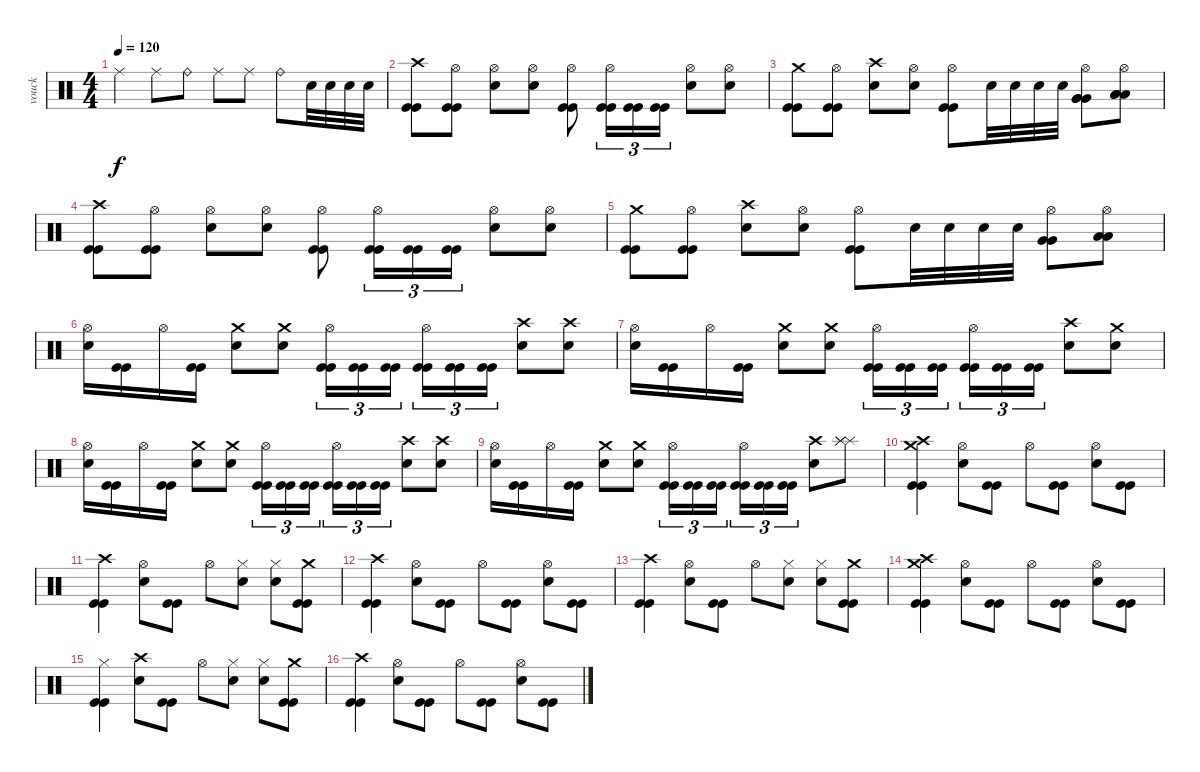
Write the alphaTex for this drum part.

\track ("vouck" "vouck") {instrument percussion}
\staff {score}
\articulation defaults
\ts (4 4)
\tempo 120
\clef neutral
\ks c "Ride (middle)".4{dy f} "Ride (middle)".8 "Ride (bell)".8 "Ride (middle)".8 "Ride (middle)".8 "Ride (bell)".8 "Electric Snare (hit)".32 "Electric Snare (hit)".32 "Electric Snare (hit)".32 "Electric Snare (hit)".32
|
("Crash high (hit)" "Kick (hit)" "Kick (hit)").8 ("Hi-Hat (open)" "Kick (hit)" "Kick (hit)").8 ("Hi-Hat (open)" "Electric Snare (hit)").8 ("Hi-Hat (open)" "Electric Snare (hit)").8 ("Hi-Hat (open)" "Kick (hit)" "Kick (hit)").8 ("Hi-Hat (open)" "Kick (hit)" "Kick (hit)").16{tu (3 2)} ("Kick (hit)" "Kick (hit)").16{tu (3 2)} ("Kick (hit)" "Kick (hit)").16{tu (3 2)} ("Hi-Hat (open)" "Electric Snare (hit)").8 ("Hi-Hat (open)" "Electric Snare (hit)").8 |
("Crash medium (hit)" "Kick (hit)" "Kick (hit)").8 ("Hi-Hat (open)" "Kick (hit)" "Kick (hit)").8 ("Crash high (hit)" "Electric Snare (hit)").8 ("Hi-Hat (open)" "Electric Snare (hit)").8 ("Hi-Hat (open)" "Kick (hit)" "Kick (hit)").8 "Electric Snare (hit)".32 "Electric Snare (hit)".32 "Electric Snare (hit)".32 "Electric Snare (hit)".32 ("Hi-Hat (open)" "Very Low Tom (hit)" "Very Low Tom (hit)" "Very Low Tom (hit)").8 ("Hi-Hat (open)" "Low Floor Tom (hit)" "Low Floor Tom (hit)" "Low Floor Tom (hit)").8 |
("Crash high (hit)" "Kick (hit)" "Kick (hit)").8 ("Hi-Hat (open)" "Kick (hit)" "Kick (hit)").8 ("Hi-Hat (open)" "Electric Snare (hit)").8 ("Hi-Hat (open)" "Electric Snare (hit)").8 ("Hi-Hat (open)" "Kick (hit)" "Kick (hit)").8 ("Hi-Hat (open)" "Kick (hit)" "Kick (hit)").16{tu (3 2)} ("Kick (hit)" "Kick (hit)").16{tu (3 2)} ("Kick (hit)" "Kick (hit)").16{tu (3 2)} ("Hi-Hat (open)" "Electric Snare (hit)").8 ("Hi-Hat (open)" "Electric Snare (hit)").8 |
("Crash medium (hit)" "Kick (hit)" "Kick (hit)").8 ("Hi-Hat (open)" "Kick (hit)" "Kick (hit)").8 ("Crash high (hit)" "Electric Snare (hit)").8 ("Hi-Hat (open)" "Electric Snare (hit)").8 ("Hi-Hat (open)" "Kick (hit)" "Kick (hit)").8 "Electric Snare (hit)".32 "Electric Snare (hit)".32 "Electric Snare (hit)".32 "Electric Snare (hit)".32 ("Hi-Hat (open)" "Very Low Tom (hit)" "Very Low Tom (hit)").8 ("Hi-Hat (open)" "Low Floor Tom (hit)" "Low Floor Tom (hit)").8 |
("Hi-Hat (open)" "Electric Snare (hit)").16 ("Kick (hit)" "Kick (hit)").16 "Hi-Hat (open)".16 ("Kick (hit)" "Kick (hit)").16 ("Crash medium (hit)" "Electric Snare (hit)").8 ("Crash medium (hit)" "Electric Snare (hit)").8 ("Hi-Hat (open)" "Kick (hit)" "Kick (hit)").16{tu (3 2)} ("Kick (hit)" "Kick (hit)").16{tu (3 2)} ("Kick (hit)" "Kick (hit)").16{tu (3 2)} ("Hi-Hat (open)" "Kick (hit)" "Kick (hit)").16{tu (3 2)} ("Kick (hit)" "Kick (hit)").16{tu (3 2)} ("Kick (hit)" "Kick (hit)").16{tu (3 2)} ("Crash high (hit)" "Electric Snare (hit)").8 ("Crash high (hit)" "Electric Snare (hit)").8 |
("Hi-Hat (open)" "Electric Snare (hit)").16 ("Kick (hit)" "Kick (hit)").16 "Hi-Hat (open)".16 ("Kick (hit)" "Kick (hit)").16 ("Crash medium (hit)" "Electric Snare (hit)").8 ("Crash medium (hit)" "Electric Snare (hit)").8 ("Hi-Hat (open)" "Kick (hit)" "Kick (hit)").16{tu (3 2)} ("Kick (hit)" "Kick (hit)").16{tu (3 2)} ("Kick (hit)" "Kick (hit)").16{tu (3 2)} ("Hi-Hat (open)" "Kick (hit)" "Kick (hit)").16{tu (3 2)} ("Kick (hit)" "Kick (hit)").16{tu (3 2)} ("Kick (hit)" "Kick (hit)").16{tu (3 2)} ("Crash high (hit)" "Electric Snare (hit)").8 ("Crash medium (hit)" "Electric Snare (hit)").8 |
("Hi-Hat (open)" "Electric Snare (hit)").16 ("Kick (hit)" "Kick (hit)").16 "Hi-Hat (open)".16 ("Kick (hit)" "Kick (hit)").16 ("Crash medium (hit)" "Electric Snare (hit)").8 ("Crash medium (hit)" "Electric Snare (hit)").8 ("Hi-Hat (open)" "Kick (hit)" "Kick (hit)").16{tu (3 2)} ("Kick (hit)" "Kick (hit)").16{tu (3 2)} ("Kick (hit)" "Kick (hit)").16{tu (3 2)} ("Hi-Hat (open)" "Kick (hit)" "Kick (hit)").16{tu (3 2)} ("Kick (hit)" "Kick (hit)").16{tu (3 2)} ("Kick (hit)" "Kick (hit)").16{tu (3 2)} ("Crash high (hit)" "Electric Snare (hit)").8 ("Crash high (hit)" "Electric Snare (hit)").8 |
("Hi-Hat (open)" "Electric Snare (hit)").16 ("Kick (hit)" "Kick (hit)").16 "Hi-Hat (open)".16 ("Kick (hit)" "Kick (hit)").16 ("Crash medium (hit)" "Electric Snare (hit)").8 ("Crash medium (hit)" "Electric Snare (hit)").8 ("Hi-Hat (open)" "Kick (hit)" "Kick (hit)").16{tu (3 2)} ("Kick (hit)" "Kick (hit)").16{tu (3 2)} ("Kick (hit)" "Kick (hit)").16{tu (3 2)} ("Hi-Hat (open)" "Kick (hit)" "Kick (hit)").16{tu (3 2)} ("Kick (hit)" "Kick (hit)").16{tu (3 2)} ("Kick (hit)" "Kick (hit)").16{tu (3 2)} ("Crash high (hit)" "Electric Snare (hit)").8 ("Splash (hit)" "Splash (hit)" "Splash (hit)").8 |
("Crash medium (hit)" "Crash high (hit)" "Kick (hit)" "Kick (hit)").4 ("Hi-Hat (open)" "Electric Snare (hit)").8 ("Kick (hit)" "Kick (hit)").8 "Hi-Hat (open)".8 ("Kick (hit)" "Kick (hit)").8 ("Hi-Hat (open)" "Electric Snare (hit)").8 ("Kick (hit)" "Kick (hit)").8 |
("Crash high (hit)" "Kick (hit)" "Kick (hit)").4 ("Hi-Hat (open)" "Electric Snare (hit)").8 ("Kick (hit)" "Kick (hit)").8 "Hi-Hat (open)".8 ("Hi-Hat (closed)" "Electric Snare (hit)").8 ("Hi-Hat (closed)" "Electric Snare (hit)").8 ("Crash medium (hit)" "Kick (hit)" "Kick (hit)").8 |
("Crash high (hit)" "Kick (hit)" "Kick (hit)").4 ("Hi-Hat (open)" "Electric Snare (hit)").8 ("Kick (hit)" "Kick (hit)").8 "Hi-Hat (open)".8 ("Kick (hit)" "Kick (hit)").8 ("Hi-Hat (open)" "Electric Snare (hit)").8 ("Kick (hit)" "Kick (hit)").8 |
("Crash high (hit)" "Kick (hit)" "Kick (hit)").4 ("Hi-Hat (open)" "Electric Snare (hit)").8 ("Kick (hit)" "Kick (hit)").8 "Hi-Hat (open)".8 ("Hi-Hat (closed)" "Electric Snare (hit)").8 ("Hi-Hat (closed)" "Electric Snare (hit)").8 ("Crash medium (hit)" "Kick (hit)" "Kick (hit)").8 |
("Crash medium (hit)" "Crash high (hit)" "Kick (hit)" "Kick (hit)").4 ("Hi-Hat (open)" "Electric Snare (hit)").8 ("Kick (hit)" "Kick (hit)").8 "Hi-Hat (open)".8 ("Kick (hit)" "Kick (hit)").8 ("Hi-Hat (open)" "Electric Snare (hit)").8 ("Kick (hit)" "Kick (hit)").8 |
("Hi-Hat (closed)" "Kick (hit)" "Kick (hit)").4 ("Crash high (hit)" "Electric Snare (hit)").8 ("Kick (hit)" "Kick (hit)").8 "Hi-Hat (open)".8 ("Hi-Hat (closed)" "Electric Snare (hit)").8 ("Hi-Hat (closed)" "Electric Snare (hit)").8 ("Crash medium (hit)" "Kick (hit)" "Kick (hit)").8 |
("Crash high (hit)" "Kick (hit)" "Kick (hit)").4 ("Hi-Hat (open)" "Electric Snare (hit)").8 ("Kick (hit)" "Kick (hit)").8 "Hi-Hat (open)".8 ("Kick (hit)" "Kick (hit)").8 ("Hi-Hat (open)" "Electric Snare (hit)").8 ("Kick (hit)" "Kick (hit)").8
